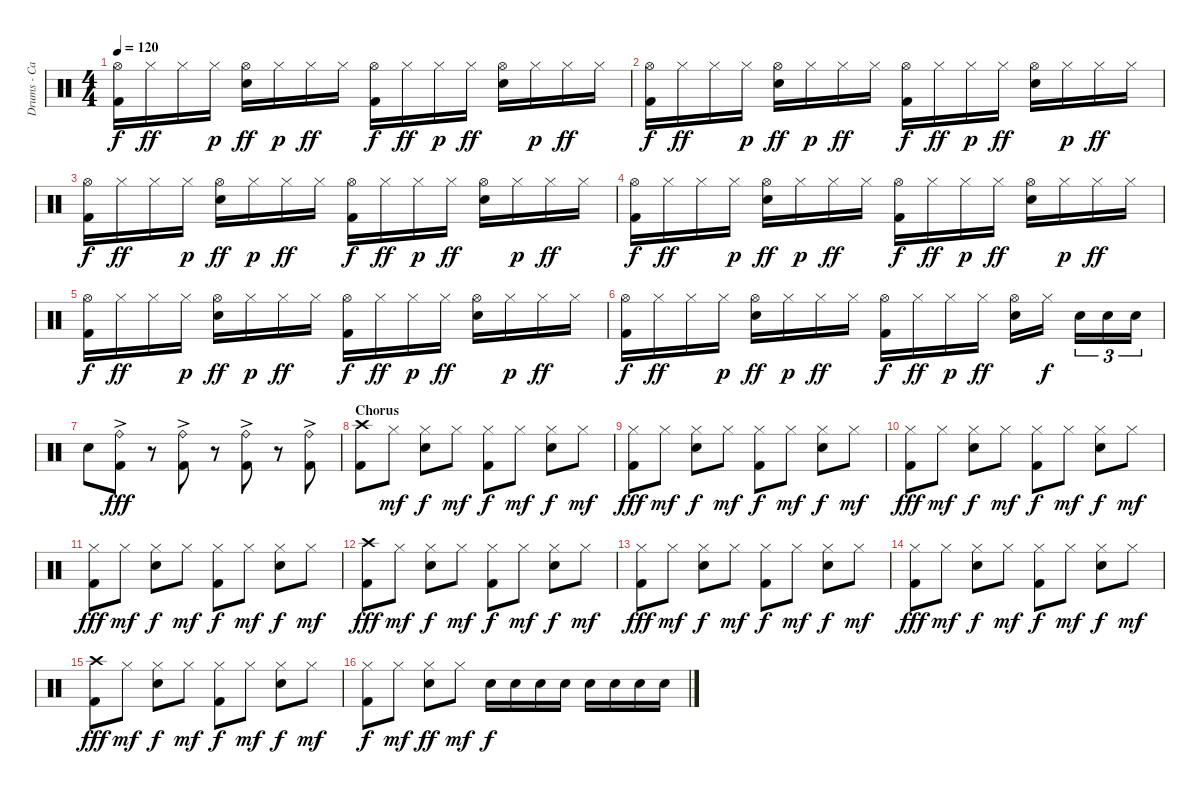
\track ("Drums - Carl Palmer" "Drums - Ca") {instrument percussion}
\staff {score}
\articulation defaults
\ts (4 4)
\tempo 120
\clef neutral
\ks c
("Hi-Hat (open)" "Kick (hit) 2").16{dy f} "Hi-Hat (closed)".16{dy ff} "Hi-Hat (closed)".16 "Hi-Hat (closed)".16{dy p} ("Hi-Hat (open)" "Snare (hit) 2").16{dy ff} "Hi-Hat (closed)".16{dy p} "Hi-Hat (closed)".16{dy ff} "Hi-Hat (closed)".16 ("Hi-Hat (open)" "Kick (hit) 2").16{dy f} "Hi-Hat (closed)".16{dy ff} "Hi-Hat (closed)".16{dy p} "Hi-Hat (closed)".16{dy ff} ("Hi-Hat (open)" "Snare (hit) 2").16 "Hi-Hat (closed)".16{dy p} "Hi-Hat (closed)".16{dy ff} "Hi-Hat (closed)".16 |
("Hi-Hat (open)" "Kick (hit) 2").16{dy f} "Hi-Hat (closed)".16{dy ff} "Hi-Hat (closed)".16 "Hi-Hat (closed)".16{dy p} ("Hi-Hat (open)" "Snare (hit) 2").16{dy ff} "Hi-Hat (closed)".16{dy p} "Hi-Hat (closed)".16{dy ff} "Hi-Hat (closed)".16 ("Hi-Hat (open)" "Kick (hit) 2").16{dy f} "Hi-Hat (closed)".16{dy ff} "Hi-Hat (closed)".16{dy p} "Hi-Hat (closed)".16{dy ff} ("Hi-Hat (open)" "Snare (hit) 2").16 "Hi-Hat (closed)".16{dy p} "Hi-Hat (closed)".16{dy ff} "Hi-Hat (closed)".16 |
("Hi-Hat (open)" "Kick (hit) 2").16{dy f} "Hi-Hat (closed)".16{dy ff} "Hi-Hat (closed)".16 "Hi-Hat (closed)".16{dy p} ("Hi-Hat (open)" "Snare (hit) 2").16{dy ff} "Hi-Hat (closed)".16{dy p} "Hi-Hat (closed)".16{dy ff} "Hi-Hat (closed)".16 ("Hi-Hat (open)" "Kick (hit) 2").16{dy f} "Hi-Hat (closed)".16{dy ff} "Hi-Hat (closed)".16{dy p} "Hi-Hat (closed)".16{dy ff} ("Hi-Hat (open)" "Snare (hit) 2").16 "Hi-Hat (closed)".16{dy p} "Hi-Hat (closed)".16{dy ff} "Hi-Hat (closed)".16 |
("Hi-Hat (open)" "Kick (hit) 2").16{dy f} "Hi-Hat (closed)".16{dy ff} "Hi-Hat (closed)".16 "Hi-Hat (closed)".16{dy p} ("Hi-Hat (open)" "Snare (hit) 2").16{dy ff} "Hi-Hat (closed)".16{dy p} "Hi-Hat (closed)".16{dy ff} "Hi-Hat (closed)".16 ("Hi-Hat (open)" "Kick (hit) 2").16{dy f} "Hi-Hat (closed)".16{dy ff} "Hi-Hat (closed)".16{dy p} "Hi-Hat (closed)".16{dy ff} ("Hi-Hat (open)" "Snare (hit) 2").16 "Hi-Hat (closed)".16{dy p} "Hi-Hat (closed)".16{dy ff} "Hi-Hat (closed)".16 |
("Hi-Hat (open)" "Kick (hit) 2").16{dy f} "Hi-Hat (closed)".16{dy ff} "Hi-Hat (closed)".16 "Hi-Hat (closed)".16{dy p} ("Hi-Hat (open)" "Snare (hit) 2").16{dy ff} "Hi-Hat (closed)".16{dy p} "Hi-Hat (closed)".16{dy ff} "Hi-Hat (closed)".16 ("Hi-Hat (open)" "Kick (hit) 2").16{dy f} "Hi-Hat (closed)".16{dy ff} "Hi-Hat (closed)".16{dy p} "Hi-Hat (closed)".16{dy ff} ("Hi-Hat (open)" "Snare (hit) 2").16 "Hi-Hat (closed)".16{dy p} "Hi-Hat (closed)".16{dy ff} "Hi-Hat (closed)".16 |
("Hi-Hat (open)" "Kick (hit) 2").16{dy f} "Hi-Hat (closed)".16{dy ff} "Hi-Hat (closed)".16 "Hi-Hat (closed)".16{dy p} ("Hi-Hat (open)" "Snare (hit) 2").16{dy ff} "Hi-Hat (closed)".16{dy p} "Hi-Hat (closed)".16{dy ff} "Hi-Hat (closed)".16 ("Hi-Hat (open)" "Kick (hit) 2").16{dy f} "Hi-Hat (closed)".16{dy ff} "Hi-Hat (closed)".16{dy p} "Hi-Hat (closed)".16{dy ff} ("Hi-Hat (open)" "Snare (hit) 2").16 "Hi-Hat (closed)".16{dy f} "Snare (hit) 2".16{tu (3 2)} "Snare (hit) 2".16{tu (3 2)} "Snare (hit) 2".16{tu (3 2)} |
"Snare (hit) 2".8 ("Ride (bell)"{ac} "Kick (hit) 2").8{dy fff} r.8 ("Ride (bell)"{ac} "Kick (hit) 2").8 r.8 ("Ride (bell)"{ac} "Kick (hit) 2").8 r.8 ("Ride (bell)"{ac} "Kick (hit) 2").8 |
\section ("" "Chorus")
("Crash high (hit)" "Kick (hit) 2").8 "Hi-Hat (closed)".8{dy mf} ("Hi-Hat (closed)" "Snare (hit) 2").8{dy f} "Hi-Hat (closed)".8{dy mf} ("Hi-Hat (closed)" "Kick (hit) 2").8{dy f} "Hi-Hat (closed)".8{dy mf} ("Hi-Hat (closed)" "Snare (hit) 2").8{dy f} "Hi-Hat (closed)".8{dy mf} |
("Hi-Hat (closed)" "Kick (hit) 2").8{dy fff} "Hi-Hat (closed)".8{dy mf} ("Hi-Hat (closed)" "Snare (hit) 2").8{dy f} "Hi-Hat (closed)".8{dy mf} ("Hi-Hat (closed)" "Kick (hit) 2").8{dy f} "Hi-Hat (closed)".8{dy mf} ("Hi-Hat (closed)" "Snare (hit) 2").8{dy f} "Hi-Hat (closed)".8{dy mf} |
("Hi-Hat (closed)" "Kick (hit) 2").8{dy fff} "Hi-Hat (closed)".8{dy mf} ("Hi-Hat (closed)" "Snare (hit) 2").8{dy f} "Hi-Hat (closed)".8{dy mf} ("Hi-Hat (closed)" "Kick (hit) 2").8{dy f} "Hi-Hat (closed)".8{dy mf} ("Hi-Hat (closed)" "Snare (hit) 2").8{dy f} "Hi-Hat (closed)".8{dy mf} |
("Hi-Hat (closed)" "Kick (hit) 2").8{dy fff} "Hi-Hat (closed)".8{dy mf} ("Hi-Hat (closed)" "Snare (hit) 2").8{dy f} "Hi-Hat (closed)".8{dy mf} ("Hi-Hat (closed)" "Kick (hit) 2").8{dy f} "Hi-Hat (closed)".8{dy mf} ("Hi-Hat (closed)" "Snare (hit) 2").8{dy f} "Hi-Hat (closed)".8{dy mf} |
("Crash high (hit)" "Kick (hit) 2").8{dy fff} "Hi-Hat (closed)".8{dy mf} ("Hi-Hat (closed)" "Snare (hit) 2").8{dy f} "Hi-Hat (closed)".8{dy mf} ("Hi-Hat (closed)" "Kick (hit) 2").8{dy f} "Hi-Hat (closed)".8{dy mf} ("Hi-Hat (closed)" "Snare (hit) 2").8{dy f} "Hi-Hat (closed)".8{dy mf} |
("Hi-Hat (closed)" "Kick (hit) 2").8{dy fff} "Hi-Hat (closed)".8{dy mf} ("Hi-Hat (closed)" "Snare (hit) 2").8{dy f} "Hi-Hat (closed)".8{dy mf} ("Hi-Hat (closed)" "Kick (hit) 2").8{dy f} "Hi-Hat (closed)".8{dy mf} ("Hi-Hat (closed)" "Snare (hit) 2").8{dy f} "Hi-Hat (closed)".8{dy mf} |
("Hi-Hat (closed)" "Kick (hit) 2").8{dy fff} "Hi-Hat (closed)".8{dy mf} ("Hi-Hat (closed)" "Snare (hit) 2").8{dy f} "Hi-Hat (closed)".8{dy mf} ("Hi-Hat (closed)" "Kick (hit) 2").8{dy f} "Hi-Hat (closed)".8{dy mf} ("Hi-Hat (closed)" "Snare (hit) 2").8{dy f} "Hi-Hat (closed)".8{dy mf} |
("Crash high (hit)" "Kick (hit) 2").8{dy fff} "Hi-Hat (closed)".8{dy mf} ("Hi-Hat (closed)" "Snare (hit) 2").8{dy f} "Hi-Hat (closed)".8{dy mf} ("Hi-Hat (closed)" "Kick (hit) 2").8{dy f} "Hi-Hat (closed)".8{dy mf} ("Hi-Hat (closed)" "Snare (hit) 2").8{dy f} "Hi-Hat (closed)".8{dy mf} |
("Hi-Hat (closed)" "Kick (hit) 2").8{dy f} "Hi-Hat (closed)".8{dy mf} ("Hi-Hat (closed)" "Snare (hit) 2").8{dy ff} "Hi-Hat (closed)".8{dy mf} "Snare (hit) 2".16{dy f} "Snare (hit) 2".16 "Snare (hit) 2".16 "Snare (hit) 2".16 "Snare (hit) 2".16 "Snare (hit) 2".16 "Snare (hit) 2".16 "Snare (hit) 2".16
